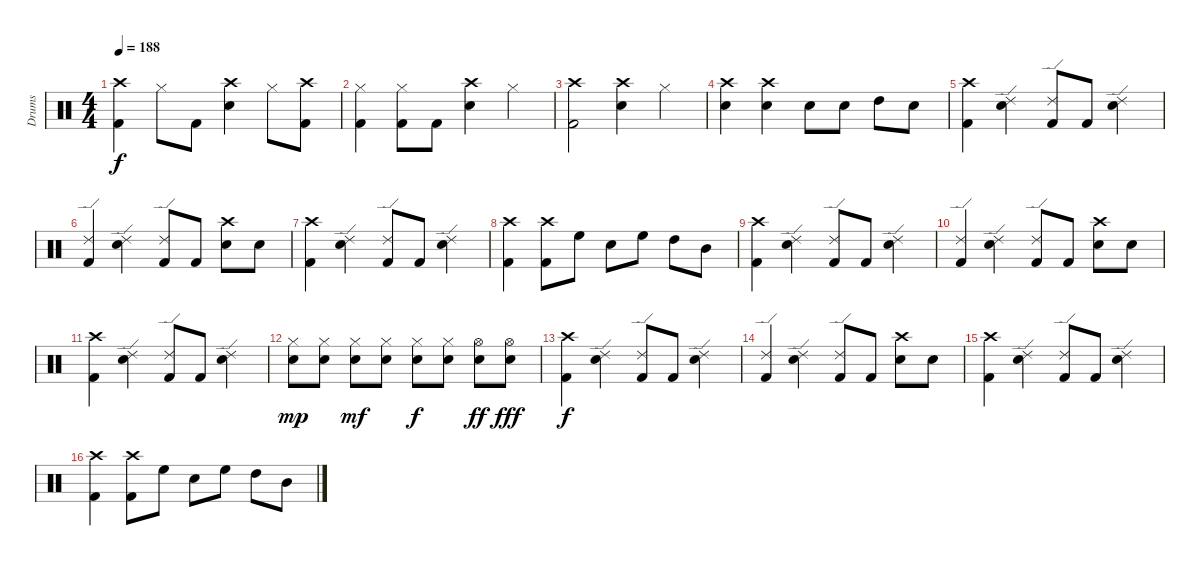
\track ("Drums" "Drums") {instrument percussion}
\staff {score}
\articulation defaults
\ts (4 4)
\tempo 188
\clef neutral
\ks c
("Crash high (hit)" "Kick (hit) 2").4{dy f} "Hi-Hat (closed)".8 "Kick (hit) 2".8 ("Crash high (hit)" "Snare (hit) 2").4 "Hi-Hat (closed)".8 ("Crash high (hit)" "Kick (hit) 2").8 |
("Hi-Hat (closed)" "Kick (hit) 2").4 ("Hi-Hat (closed)" "Kick (hit) 2").8 "Kick (hit) 2".8 ("Crash high (hit)" "Snare (hit) 2").4 "Hi-Hat (closed)".4 |
("Crash high (hit)" "Kick (hit) 2").2 ("Crash high (hit)" "Snare (hit) 2").4 "Hi-Hat (closed)".4 |
("Crash high (hit)" "Snare (hit) 2").4 ("Crash high (hit)" "Snare (hit) 2").4 "Snare (hit) 2".8 "Snare (hit) 2".8 "High Tom (hit)".8 "Snare (hit) 2".8 |
("Crash high (hit)" "Kick (hit) 2").4 ("Ride (edge) 2" "Snare (hit) 2").4 ("Ride (edge) 2" "Kick (hit) 2").8 "Kick (hit) 2".8 ("Ride (edge) 2" "Snare (hit) 2").4 |
("Ride (edge) 2" "Kick (hit) 2").4 ("Ride (edge) 2" "Snare (hit) 2").4 ("Ride (edge) 2" "Kick (hit) 2").8 "Kick (hit) 2".8 ("Crash high (hit)" "Snare (hit) 2").8 "Snare (hit) 2".8 |
("Crash high (hit)" "Kick (hit) 2").4 ("Ride (edge) 2" "Snare (hit) 2").4 ("Ride (edge) 2" "Kick (hit) 2").8 "Kick (hit) 2".8 ("Ride (edge) 2" "Snare (hit) 2").4 |
("Crash high (hit)" "Kick (hit) 2").4 ("Crash high (hit)" "Kick (hit) 2").8 "High Floor Tom (hit)".8 "Snare (hit) 2".8 "High Floor Tom (hit)".8 "High Tom (hit)".8 "Mid Tom (hit)".8 |
("Crash high (hit)" "Kick (hit) 2").4 ("Ride (edge) 2" "Snare (hit) 2").4 ("Ride (edge) 2" "Kick (hit) 2").8 "Kick (hit) 2".8 ("Ride (edge) 2" "Snare (hit) 2").4 |
("Ride (edge) 2" "Kick (hit) 2").4 ("Ride (edge) 2" "Snare (hit) 2").4 ("Ride (edge) 2" "Kick (hit) 2").8 "Kick (hit) 2".8 ("Crash high (hit)" "Snare (hit) 2").8 "Snare (hit) 2".8 |
("Crash high (hit)" "Kick (hit) 2").4 ("Ride (edge) 2" "Snare (hit) 2").4 ("Ride (edge) 2" "Kick (hit) 2").8 "Kick (hit) 2".8 ("Ride (edge) 2" "Snare (hit) 2").4 |
("Hi-Hat (closed)" "Snare (hit) 2").8{dy mp} ("Hi-Hat (closed)" "Snare (hit) 2").8 ("Hi-Hat (closed)" "Snare (hit) 2").8{dy mf} ("Hi-Hat (closed)" "Snare (hit) 2").8 ("Hi-Hat (closed)" "Snare (hit) 2").8{dy f} ("Hi-Hat (closed)" "Snare (hit) 2").8 ("Hi-Hat (open)" "Snare (hit) 2").8{dy ff} ("Hi-Hat (open)" "Snare (hit) 2").8{dy fff} |
("Crash high (hit)" "Kick (hit) 2").4{dy f} ("Ride (edge) 2" "Snare (hit) 2").4 ("Ride (edge) 2" "Kick (hit) 2").8 "Kick (hit) 2".8 ("Ride (edge) 2" "Snare (hit) 2").4 |
("Ride (edge) 2" "Kick (hit) 2").4 ("Ride (edge) 2" "Snare (hit) 2").4 ("Ride (edge) 2" "Kick (hit) 2").8 "Kick (hit) 2".8 ("Crash high (hit)" "Snare (hit) 2").8 "Snare (hit) 2".8 |
("Crash high (hit)" "Kick (hit) 2").4 ("Ride (edge) 2" "Snare (hit) 2").4 ("Ride (edge) 2" "Kick (hit) 2").8 "Kick (hit) 2".8 ("Ride (edge) 2" "Snare (hit) 2").4 |
("Crash high (hit)" "Kick (hit) 2").4 ("Crash high (hit)" "Kick (hit) 2").8 "High Floor Tom (hit)".8 "Snare (hit) 2".8 "High Floor Tom (hit)".8 "High Tom (hit)".8 "Mid Tom (hit)".8
